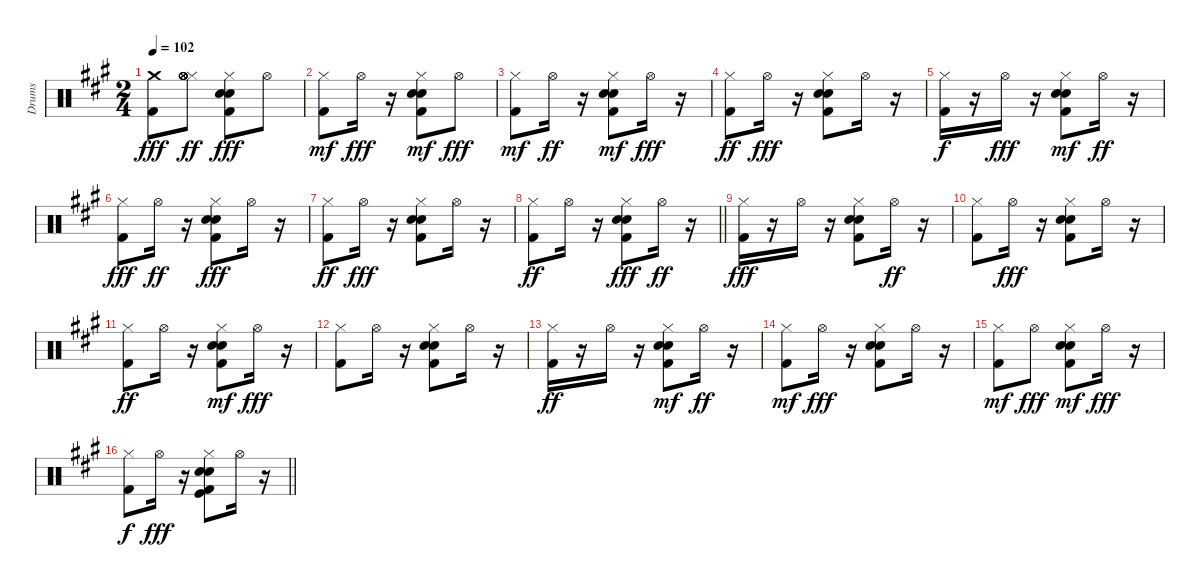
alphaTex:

\track ("Drums" "Drums") {instrument percussion}
\staff {score}
\articulation defaults
\ts (2 4)
\tempo 102
\clef neutral
\ks a
("Kick (hit) 2" "Crash medium (hit)").8{dy fff} ("Hi-Hat (closed)" "Hi-Hat (open)" "Hi-Hat (open)" "Hi-Hat (open)" "Hi-Hat (open)" "Hi-Hat (open)").8{dy ff} ("Kick (hit) 2" "Metronome (bell)" "Electric Snare (hit)" "Hi-Hat (closed)").8{dy fff} "Hi-Hat (open)".8 |
("Kick (hit) 2" "Hi-Hat (closed)").8{dy mf} "Hi-Hat (open)".16{dy fff} r.16 ("Kick (hit) 2" "Metronome (bell)" "Electric Snare (hit)" "Hi-Hat (closed)").8{dy mf} "Hi-Hat (open)".8{dy fff} |
("Kick (hit) 2" "Hi-Hat (closed)").8{dy mf} "Hi-Hat (open)".16{dy ff} r.16 ("Kick (hit) 2" "Metronome (bell)" "Electric Snare (hit)" "Hi-Hat (closed)").8{dy mf} "Hi-Hat (open)".16{dy fff} r.16 |
("Kick (hit) 2" "Hi-Hat (closed)").8{dy ff} "Hi-Hat (open)".16{dy fff} r.16 ("Kick (hit) 2" "Metronome (bell)" "Electric Snare (hit)" "Hi-Hat (closed)").8 "Hi-Hat (open)".16 r.16 |
("Kick (hit) 2" "Hi-Hat (closed)").16{dy f} r.16 "Hi-Hat (open)".16{dy fff} r.16 ("Kick (hit) 2" "Metronome (bell)" "Electric Snare (hit)" "Hi-Hat (closed)").8{dy mf} "Hi-Hat (open)".16{dy ff} r.16 |
("Kick (hit) 2" "Hi-Hat (closed)").8{dy fff} "Hi-Hat (open)".16{dy ff} r.16 ("Kick (hit) 2" "Metronome (bell)" "Electric Snare (hit)" "Hi-Hat (closed)").8{dy fff} "Hi-Hat (open)".16 r.16 |
("Kick (hit) 2" "Hi-Hat (closed)").8{dy ff} "Hi-Hat (open)".16{dy fff} r.16 ("Kick (hit) 2" "Metronome (bell)" "Electric Snare (hit)" "Hi-Hat (closed)").8 "Hi-Hat (open)".16 r.16 |
\barLineRight lightlight
("Kick (hit) 2" "Hi-Hat (closed)").8{dy ff} "Hi-Hat (open)".16 r.16 ("Kick (hit) 2" "Metronome (bell)" "Electric Snare (hit)" "Hi-Hat (closed)").8{dy fff} "Hi-Hat (open)".16{dy ff} r.16 |
("Kick (hit) 2" "Hi-Hat (closed)").16{dy fff} r.16 "Hi-Hat (open)".16 r.16 ("Kick (hit) 2" "Metronome (bell)" "Electric Snare (hit)" "Hi-Hat (closed)").8 "Hi-Hat (open)".16{dy ff} r.16 |
("Kick (hit) 2" "Hi-Hat (closed)").8 "Hi-Hat (open)".16{dy fff} r.16 ("Kick (hit) 2" "Metronome (bell)" "Electric Snare (hit)" "Hi-Hat (closed)").8 "Hi-Hat (open)".16 r.16 |
("Kick (hit) 2" "Hi-Hat (closed)").8{dy ff} "Hi-Hat (open)".16 r.16 ("Kick (hit) 2" "Metronome (bell)" "Electric Snare (hit)" "Hi-Hat (closed)").8{dy mf} "Hi-Hat (open)".16{dy fff} r.16 |
("Kick (hit) 2" "Hi-Hat (closed)").8 "Hi-Hat (open)".16 r.16 ("Kick (hit) 2" "Metronome (bell)" "Electric Snare (hit)" "Hi-Hat (closed)").8 "Hi-Hat (open)".16 r.16 |
("Kick (hit) 2" "Hi-Hat (closed)").16{dy ff} r.16 "Hi-Hat (open)".16 r.16 ("Kick (hit) 2" "Metronome (bell)" "Electric Snare (hit)" "Hi-Hat (closed)").8{dy mf} "Hi-Hat (open)".16{dy ff} r.16 |
("Kick (hit) 2" "Hi-Hat (closed)").8{dy mf} "Hi-Hat (open)".16{dy fff} r.16 ("Kick (hit) 2" "Metronome (bell)" "Electric Snare (hit)" "Hi-Hat (closed)").8 "Hi-Hat (open)".16 r.16 |
("Kick (hit) 2" "Hi-Hat (closed)").8{dy mf} "Hi-Hat (open)".8{dy fff} ("Kick (hit) 2" "Metronome (bell)" "Electric Snare (hit)" "Hi-Hat (closed)").8{dy mf} "Hi-Hat (open)".16{dy fff} r.16 |
\barLineRight lightlight
("Kick (hit) 2" "Hi-Hat (closed)").8{dy f} "Hi-Hat (open)".16{dy fff} r.16 ("Kick (hit) 2" "Metronome (bell)" "Kick (hit)" "Electric Snare (hit)" "Hi-Hat (closed)").8 "Hi-Hat (open)".16 r.16
